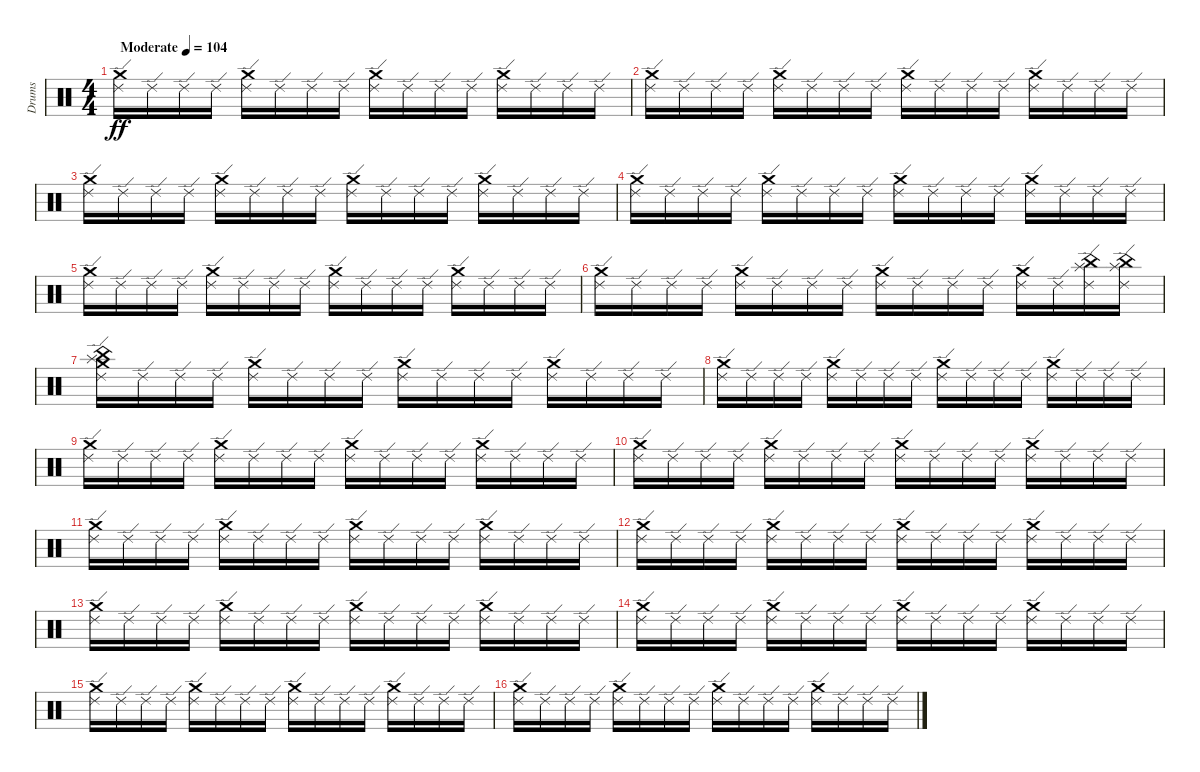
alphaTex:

\track ("Drums" "Drums") {instrument percussion}
\staff {score}
\articulation defaults
\ts (4 4)
\tempo (104 "Moderate")
\clef neutral
\ks c
("Crash medium (hit)" "Ride (edge) 2").16{dy ff} "Ride (edge) 2".16 "Ride (edge) 2".16 "Ride (edge) 2".16 ("Crash medium (hit)" "Ride (edge) 2").16 "Ride (edge) 2".16 "Ride (edge) 2".16 "Ride (edge) 2".16 ("Crash medium (hit)" "Ride (edge) 2").16 "Ride (edge) 2".16 "Ride (edge) 2".16 "Ride (edge) 2".16 ("Crash medium (hit)" "Ride (edge) 2").16 "Ride (edge) 2".16 "Ride (edge) 2".16 "Ride (edge) 2".16 |
("Crash medium (hit)" "Ride (edge) 2").16 "Ride (edge) 2".16 "Ride (edge) 2".16 "Ride (edge) 2".16 ("Crash medium (hit)" "Ride (edge) 2").16 "Ride (edge) 2".16 "Ride (edge) 2".16 "Ride (edge) 2".16 ("Crash medium (hit)" "Ride (edge) 2").16 "Ride (edge) 2".16 "Ride (edge) 2".16 "Ride (edge) 2".16 ("Crash medium (hit)" "Ride (edge) 2").16 "Ride (edge) 2".16 "Ride (edge) 2".16 "Ride (edge) 2".16 |
("Crash medium (hit)" "Ride (edge) 2").16 "Ride (edge) 2".16 "Ride (edge) 2".16 "Ride (edge) 2".16 ("Crash medium (hit)" "Ride (edge) 2").16 "Ride (edge) 2".16 "Ride (edge) 2".16 "Ride (edge) 2".16 ("Crash medium (hit)" "Ride (edge) 2").16 "Ride (edge) 2".16 "Ride (edge) 2".16 "Ride (edge) 2".16 ("Crash medium (hit)" "Ride (edge) 2").16 "Ride (edge) 2".16 "Ride (edge) 2".16 "Ride (edge) 2".16 |
("Crash medium (hit)" "Ride (edge) 2").16 "Ride (edge) 2".16 "Ride (edge) 2".16 "Ride (edge) 2".16 ("Crash medium (hit)" "Ride (edge) 2").16 "Ride (edge) 2".16 "Ride (edge) 2".16 "Ride (edge) 2".16 ("Crash medium (hit)" "Ride (edge) 2").16 "Ride (edge) 2".16 "Ride (edge) 2".16 "Ride (edge) 2".16 ("Crash medium (hit)" "Ride (edge) 2").16 "Ride (edge) 2".16 "Ride (edge) 2".16 "Ride (edge) 2".16 |
("Crash medium (hit)" "Ride (edge) 2").16 "Ride (edge) 2".16 "Ride (edge) 2".16 "Ride (edge) 2".16 ("Crash medium (hit)" "Ride (edge) 2").16 "Ride (edge) 2".16 "Ride (edge) 2".16 "Ride (edge) 2".16 ("Crash medium (hit)" "Ride (edge) 2").16 "Ride (edge) 2".16 "Ride (edge) 2".16 "Ride (edge) 2".16 ("Crash medium (hit)" "Ride (edge) 2").16 "Ride (edge) 2".16 "Ride (edge) 2".16 "Ride (edge) 2".16 |
("Crash medium (hit)" "Ride (edge) 2").16 "Ride (edge) 2".16 "Ride (edge) 2".16 "Ride (edge) 2".16 ("Crash medium (hit)" "Ride (edge) 2").16 "Ride (edge) 2".16 "Ride (edge) 2".16 "Ride (edge) 2".16 ("Crash medium (hit)" "Ride (edge) 2").16 "Ride (edge) 2".16 "Ride (edge) 2".16 "Ride (edge) 2".16 ("Crash medium (hit)" "Ride (edge) 2").16 "Ride (edge) 2".16 ("China (hit)" "Splash (hit)" "Ride (edge) 2").16 ("China (hit)" "Splash (hit)" "Ride (edge) 2").16 |
("China (hit)" "Splash (hit)" "Crash medium (hit)" "Ride (edge) 2").16 "Ride (edge) 2".16 "Ride (edge) 2".16 "Ride (edge) 2".16 ("Crash medium (hit)" "Ride (edge) 2").16 "Ride (edge) 2".16 "Ride (edge) 2".16 "Ride (edge) 2".16 ("Crash medium (hit)" "Ride (edge) 2").16 "Ride (edge) 2".16 "Ride (edge) 2".16 "Ride (edge) 2".16 ("Crash medium (hit)" "Ride (edge) 2").16 "Ride (edge) 2".16 "Ride (edge) 2".16 "Ride (edge) 2".16 |
("Crash medium (hit)" "Ride (edge) 2").16 "Ride (edge) 2".16 "Ride (edge) 2".16 "Ride (edge) 2".16 ("Crash medium (hit)" "Ride (edge) 2").16 "Ride (edge) 2".16 "Ride (edge) 2".16 "Ride (edge) 2".16 ("Crash medium (hit)" "Ride (edge) 2").16 "Ride (edge) 2".16 "Ride (edge) 2".16 "Ride (edge) 2".16 ("Crash medium (hit)" "Ride (edge) 2").16 "Ride (edge) 2".16 "Ride (edge) 2".16 "Ride (edge) 2".16 |
("Crash medium (hit)" "Ride (edge) 2").16 "Ride (edge) 2".16 "Ride (edge) 2".16 "Ride (edge) 2".16 ("Crash medium (hit)" "Ride (edge) 2").16 "Ride (edge) 2".16 "Ride (edge) 2".16 "Ride (edge) 2".16 ("Crash medium (hit)" "Ride (edge) 2").16 "Ride (edge) 2".16 "Ride (edge) 2".16 "Ride (edge) 2".16 ("Crash medium (hit)" "Ride (edge) 2").16 "Ride (edge) 2".16 "Ride (edge) 2".16 "Ride (edge) 2".16 |
("Crash medium (hit)" "Ride (edge) 2").16 "Ride (edge) 2".16 "Ride (edge) 2".16 "Ride (edge) 2".16 ("Crash medium (hit)" "Ride (edge) 2").16 "Ride (edge) 2".16 "Ride (edge) 2".16 "Ride (edge) 2".16 ("Crash medium (hit)" "Ride (edge) 2").16 "Ride (edge) 2".16 "Ride (edge) 2".16 "Ride (edge) 2".16 ("Crash medium (hit)" "Ride (edge) 2").16 "Ride (edge) 2".16 "Ride (edge) 2".16 "Ride (edge) 2".16 |
("Crash medium (hit)" "Ride (edge) 2").16 "Ride (edge) 2".16 "Ride (edge) 2".16 "Ride (edge) 2".16 ("Crash medium (hit)" "Ride (edge) 2").16 "Ride (edge) 2".16 "Ride (edge) 2".16 "Ride (edge) 2".16 ("Crash medium (hit)" "Ride (edge) 2").16 "Ride (edge) 2".16 "Ride (edge) 2".16 "Ride (edge) 2".16 ("Crash medium (hit)" "Ride (edge) 2").16 "Ride (edge) 2".16 "Ride (edge) 2".16 "Ride (edge) 2".16 |
("Crash medium (hit)" "Ride (edge) 2").16 "Ride (edge) 2".16 "Ride (edge) 2".16 "Ride (edge) 2".16 ("Crash medium (hit)" "Ride (edge) 2").16 "Ride (edge) 2".16 "Ride (edge) 2".16 "Ride (edge) 2".16 ("Crash medium (hit)" "Ride (edge) 2").16 "Ride (edge) 2".16 "Ride (edge) 2".16 "Ride (edge) 2".16 ("Crash medium (hit)" "Ride (edge) 2").16 "Ride (edge) 2".16 "Ride (edge) 2".16 "Ride (edge) 2".16 |
("Crash medium (hit)" "Ride (edge) 2").16 "Ride (edge) 2".16 "Ride (edge) 2".16 "Ride (edge) 2".16 ("Crash medium (hit)" "Ride (edge) 2").16 "Ride (edge) 2".16 "Ride (edge) 2".16 "Ride (edge) 2".16 ("Crash medium (hit)" "Ride (edge) 2").16 "Ride (edge) 2".16 "Ride (edge) 2".16 "Ride (edge) 2".16 ("Crash medium (hit)" "Ride (edge) 2").16 "Ride (edge) 2".16 "Ride (edge) 2".16 "Ride (edge) 2".16 |
("Crash medium (hit)" "Ride (edge) 2").16 "Ride (edge) 2".16 "Ride (edge) 2".16 "Ride (edge) 2".16 ("Crash medium (hit)" "Ride (edge) 2").16 "Ride (edge) 2".16 "Ride (edge) 2".16 "Ride (edge) 2".16 ("Crash medium (hit)" "Ride (edge) 2").16 "Ride (edge) 2".16 "Ride (edge) 2".16 "Ride (edge) 2".16 ("Crash medium (hit)" "Ride (edge) 2").16 "Ride (edge) 2".16 "Ride (edge) 2".16 "Ride (edge) 2".16 |
("Crash medium (hit)" "Ride (edge) 2").16 "Ride (edge) 2".16 "Ride (edge) 2".16 "Ride (edge) 2".16 ("Crash medium (hit)" "Ride (edge) 2").16 "Ride (edge) 2".16 "Ride (edge) 2".16 "Ride (edge) 2".16 ("Crash medium (hit)" "Ride (edge) 2").16 "Ride (edge) 2".16 "Ride (edge) 2".16 "Ride (edge) 2".16 ("Crash medium (hit)" "Ride (edge) 2").16 "Ride (edge) 2".16 "Ride (edge) 2".16 "Ride (edge) 2".16 |
("Crash medium (hit)" "Ride (edge) 2").16 "Ride (edge) 2".16 "Ride (edge) 2".16 "Ride (edge) 2".16 ("Crash medium (hit)" "Ride (edge) 2").16 "Ride (edge) 2".16 "Ride (edge) 2".16 "Ride (edge) 2".16 ("Crash medium (hit)" "Ride (edge) 2").16 "Ride (edge) 2".16 "Ride (edge) 2".16 "Ride (edge) 2".16 ("Crash medium (hit)" "Ride (edge) 2").16 "Ride (edge) 2".16 "Ride (edge) 2".16 "Ride (edge) 2".16
